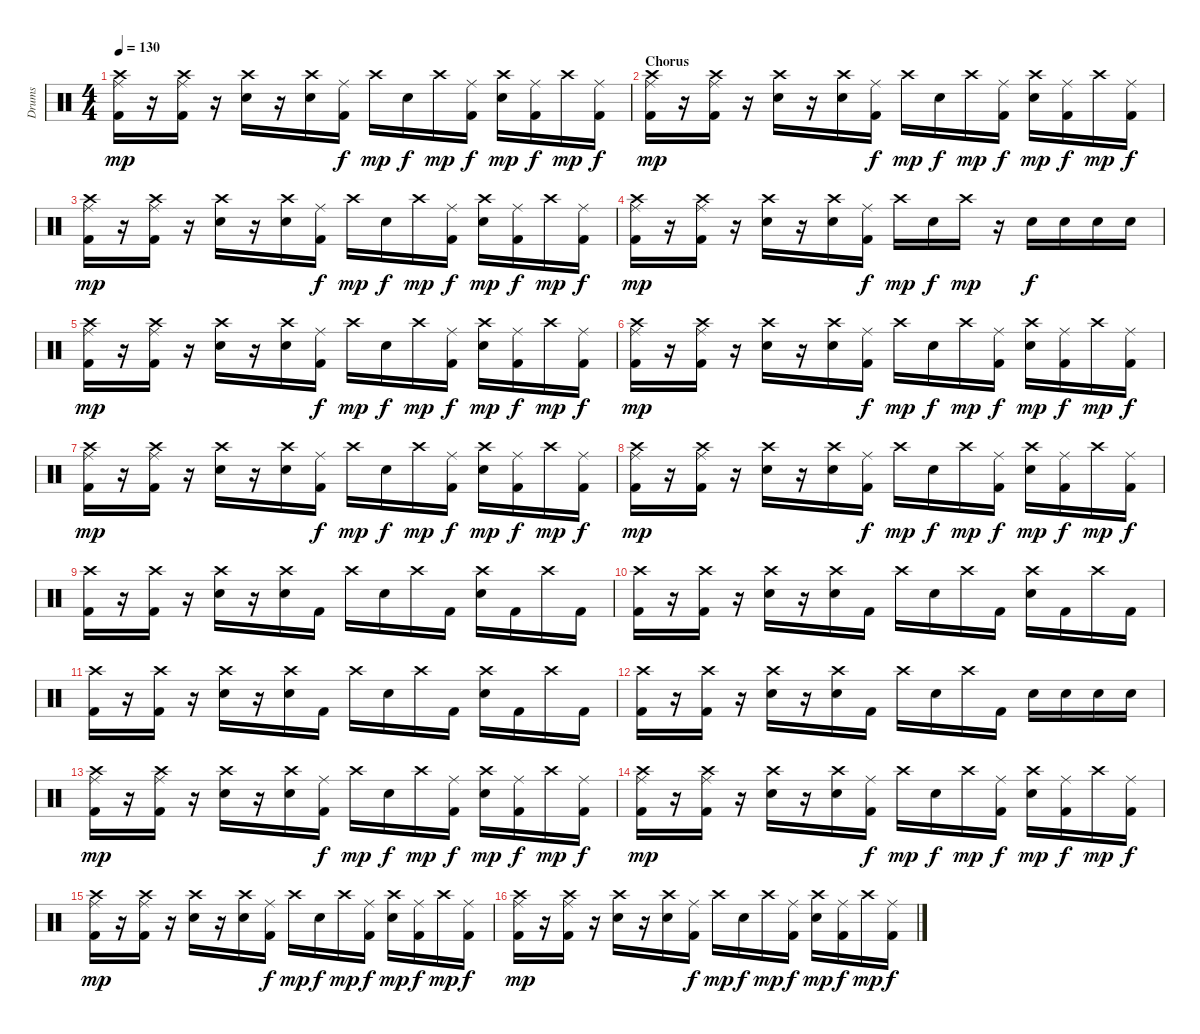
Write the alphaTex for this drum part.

\track ("Drums" "Drums") {instrument percussion}
\staff {score}
\articulation defaults
\ts (4 4)
\tempo 130
\clef neutral
\ks c
("Ride (middle)" "Crash high (hit)" "Kick (hit) 2").16{dy mp} r.16 ("Ride (middle)" "Crash high (hit)" "Kick (hit) 2").16 r.16 ("Crash high (hit)" "Snare (hit) 2").16 r.16 ("Crash high (hit)" "Snare (hit) 2").16 ("Ride (middle)" "Kick (hit) 2").16{dy f} "Crash high (hit)".16{dy mp} "Snare (hit) 2".16{dy f} "Crash high (hit)".16{dy mp} ("Ride (middle)" "Kick (hit) 2").16{dy f} ("Crash high (hit)" "Snare (hit) 2").16{dy mp} ("Ride (middle)" "Kick (hit) 2").16{dy f} "Crash high (hit)".16{dy mp} ("Ride (middle)" "Kick (hit) 2").16{dy f} |
\section ("" "Chorus")
("Ride (middle)" "Crash high (hit)" "Kick (hit) 2").16{dy mp} r.16 ("Ride (middle)" "Crash high (hit)" "Kick (hit) 2").16 r.16 ("Crash high (hit)" "Snare (hit) 2").16 r.16 ("Crash high (hit)" "Snare (hit) 2").16 ("Ride (middle)" "Kick (hit) 2").16{dy f} "Crash high (hit)".16{dy mp} "Snare (hit) 2".16{dy f} "Crash high (hit)".16{dy mp} ("Ride (middle)" "Kick (hit) 2").16{dy f} ("Crash high (hit)" "Snare (hit) 2").16{dy mp} ("Ride (middle)" "Kick (hit) 2").16{dy f} "Crash high (hit)".16{dy mp} ("Ride (middle)" "Kick (hit) 2").16{dy f} |
("Ride (middle)" "Crash high (hit)" "Kick (hit) 2").16{dy mp} r.16 ("Ride (middle)" "Crash high (hit)" "Kick (hit) 2").16 r.16 ("Crash high (hit)" "Snare (hit) 2").16 r.16 ("Crash high (hit)" "Snare (hit) 2").16 ("Ride (middle)" "Kick (hit) 2").16{dy f} "Crash high (hit)".16{dy mp} "Snare (hit) 2".16{dy f} "Crash high (hit)".16{dy mp} ("Ride (middle)" "Kick (hit) 2").16{dy f} ("Crash high (hit)" "Snare (hit) 2").16{dy mp} ("Ride (middle)" "Kick (hit) 2").16{dy f} "Crash high (hit)".16{dy mp} ("Ride (middle)" "Kick (hit) 2").16{dy f} |
("Ride (middle)" "Crash high (hit)" "Kick (hit) 2").16{dy mp} r.16 ("Ride (middle)" "Crash high (hit)" "Kick (hit) 2").16 r.16 ("Crash high (hit)" "Snare (hit) 2").16 r.16 ("Crash high (hit)" "Snare (hit) 2").16 ("Ride (middle)" "Kick (hit) 2").16{dy f} "Crash high (hit)".16{dy mp} "Snare (hit) 2".16{dy f} "Crash high (hit)".16{dy mp} r.16 "Snare (hit) 2".16{dy f} "Snare (hit) 2".16 "Snare (hit) 2".16 "Snare (hit) 2".16 |
("Ride (middle)" "Crash high (hit)" "Kick (hit) 2").16{dy mp} r.16 ("Ride (middle)" "Crash high (hit)" "Kick (hit) 2").16 r.16 ("Crash high (hit)" "Snare (hit) 2").16 r.16 ("Crash high (hit)" "Snare (hit) 2").16 ("Ride (middle)" "Kick (hit) 2").16{dy f} "Crash high (hit)".16{dy mp} "Snare (hit) 2".16{dy f} "Crash high (hit)".16{dy mp} ("Ride (middle)" "Kick (hit) 2").16{dy f} ("Crash high (hit)" "Snare (hit) 2").16{dy mp} ("Ride (middle)" "Kick (hit) 2").16{dy f} "Crash high (hit)".16{dy mp} ("Ride (middle)" "Kick (hit) 2").16{dy f} |
("Ride (middle)" "Crash high (hit)" "Kick (hit) 2").16{dy mp} r.16 ("Ride (middle)" "Crash high (hit)" "Kick (hit) 2").16 r.16 ("Crash high (hit)" "Snare (hit) 2").16 r.16 ("Crash high (hit)" "Snare (hit) 2").16 ("Ride (middle)" "Kick (hit) 2").16{dy f} "Crash high (hit)".16{dy mp} "Snare (hit) 2".16{dy f} "Crash high (hit)".16{dy mp} ("Ride (middle)" "Kick (hit) 2").16{dy f} ("Crash high (hit)" "Snare (hit) 2").16{dy mp} ("Ride (middle)" "Kick (hit) 2").16{dy f} "Crash high (hit)".16{dy mp} ("Ride (middle)" "Kick (hit) 2").16{dy f} |
("Ride (middle)" "Crash high (hit)" "Kick (hit) 2").16{dy mp} r.16 ("Ride (middle)" "Crash high (hit)" "Kick (hit) 2").16 r.16 ("Crash high (hit)" "Snare (hit) 2").16 r.16 ("Crash high (hit)" "Snare (hit) 2").16 ("Ride (middle)" "Kick (hit) 2").16{dy f} "Crash high (hit)".16{dy mp} "Snare (hit) 2".16{dy f} "Crash high (hit)".16{dy mp} ("Ride (middle)" "Kick (hit) 2").16{dy f} ("Crash high (hit)" "Snare (hit) 2").16{dy mp} ("Ride (middle)" "Kick (hit) 2").16{dy f} "Crash high (hit)".16{dy mp} ("Ride (middle)" "Kick (hit) 2").16{dy f} |
("Ride (middle)" "Crash high (hit)" "Kick (hit) 2").16{dy mp} r.16 ("Ride (middle)" "Crash high (hit)" "Kick (hit) 2").16 r.16 ("Crash high (hit)" "Snare (hit) 2").16 r.16 ("Crash high (hit)" "Snare (hit) 2").16 ("Ride (middle)" "Kick (hit) 2").16{dy f} "Crash high (hit)".16{dy mp} "Snare (hit) 2".16{dy f} "Crash high (hit)".16{dy mp} ("Ride (middle)" "Kick (hit) 2").16{dy f} ("Crash high (hit)" "Snare (hit) 2").16{dy mp} ("Ride (middle)" "Kick (hit) 2").16{dy f} "Crash high (hit)".16{dy mp} ("Ride (middle)" "Kick (hit) 2").16{dy f} |
("Crash high (hit)" "Kick (hit) 2").16 r.16 ("Crash high (hit)" "Kick (hit) 2").16 r.16 ("Crash high (hit)" "Snare (hit) 2").16 r.16 ("Crash high (hit)" "Snare (hit) 2").16 "Kick (hit) 2".16 "Crash high (hit)".16 "Snare (hit) 2".16 "Crash high (hit)".16 "Kick (hit) 2".16 ("Crash high (hit)" "Snare (hit) 2").16 "Kick (hit) 2".16 "Crash high (hit)".16 "Kick (hit) 2".16 |
("Crash high (hit)" "Kick (hit) 2").16 r.16 ("Crash high (hit)" "Kick (hit) 2").16 r.16 ("Crash high (hit)" "Snare (hit) 2").16 r.16 ("Crash high (hit)" "Snare (hit) 2").16 "Kick (hit) 2".16 "Crash high (hit)".16 "Snare (hit) 2".16 "Crash high (hit)".16 "Kick (hit) 2".16 ("Crash high (hit)" "Snare (hit) 2").16 "Kick (hit) 2".16 "Crash high (hit)".16 "Kick (hit) 2".16 |
("Crash high (hit)" "Kick (hit) 2").16 r.16 ("Crash high (hit)" "Kick (hit) 2").16 r.16 ("Crash high (hit)" "Snare (hit) 2").16 r.16 ("Crash high (hit)" "Snare (hit) 2").16 "Kick (hit) 2".16 "Crash high (hit)".16 "Snare (hit) 2".16 "Crash high (hit)".16 "Kick (hit) 2".16 ("Crash high (hit)" "Snare (hit) 2").16 "Kick (hit) 2".16 "Crash high (hit)".16 "Kick (hit) 2".16 |
("Crash high (hit)" "Kick (hit) 2").16 r.16 ("Crash high (hit)" "Kick (hit) 2").16 r.16 ("Crash high (hit)" "Snare (hit) 2").16 r.16 ("Crash high (hit)" "Snare (hit) 2").16 "Kick (hit) 2".16 "Crash high (hit)".16 "Snare (hit) 2".16 "Crash high (hit)".16 "Kick (hit) 2".16 "Snare (hit) 2".16 "Snare (hit) 2".16 "Snare (hit) 2".16 "Snare (hit) 2".16 |
("Ride (middle)" "Crash high (hit)" "Kick (hit) 2").16{dy mp} r.16 ("Ride (middle)" "Crash high (hit)" "Kick (hit) 2").16 r.16 ("Crash high (hit)" "Snare (hit) 2").16 r.16 ("Crash high (hit)" "Snare (hit) 2").16 ("Ride (middle)" "Kick (hit) 2").16{dy f} "Crash high (hit)".16{dy mp} "Snare (hit) 2".16{dy f} "Crash high (hit)".16{dy mp} ("Ride (middle)" "Kick (hit) 2").16{dy f} ("Crash high (hit)" "Snare (hit) 2").16{dy mp} ("Ride (middle)" "Kick (hit) 2").16{dy f} "Crash high (hit)".16{dy mp} ("Ride (middle)" "Kick (hit) 2").16{dy f} |
("Ride (middle)" "Crash high (hit)" "Kick (hit) 2").16{dy mp} r.16 ("Ride (middle)" "Crash high (hit)" "Kick (hit) 2").16 r.16 ("Crash high (hit)" "Snare (hit) 2").16 r.16 ("Crash high (hit)" "Snare (hit) 2").16 ("Ride (middle)" "Kick (hit) 2").16{dy f} "Crash high (hit)".16{dy mp} "Snare (hit) 2".16{dy f} "Crash high (hit)".16{dy mp} ("Ride (middle)" "Kick (hit) 2").16{dy f} ("Crash high (hit)" "Snare (hit) 2").16{dy mp} ("Ride (middle)" "Kick (hit) 2").16{dy f} "Crash high (hit)".16{dy mp} ("Ride (middle)" "Kick (hit) 2").16{dy f} |
("Ride (middle)" "Crash high (hit)" "Kick (hit) 2").16{dy mp} r.16 ("Ride (middle)" "Crash high (hit)" "Kick (hit) 2").16 r.16 ("Crash high (hit)" "Snare (hit) 2").16 r.16 ("Crash high (hit)" "Snare (hit) 2").16 ("Ride (middle)" "Kick (hit) 2").16{dy f} "Crash high (hit)".16{dy mp} "Snare (hit) 2".16{dy f} "Crash high (hit)".16{dy mp} ("Ride (middle)" "Kick (hit) 2").16{dy f} ("Crash high (hit)" "Snare (hit) 2").16{dy mp} ("Ride (middle)" "Kick (hit) 2").16{dy f} "Crash high (hit)".16{dy mp} ("Ride (middle)" "Kick (hit) 2").16{dy f} |
("Ride (middle)" "Crash high (hit)" "Kick (hit) 2").16{dy mp} r.16 ("Ride (middle)" "Crash high (hit)" "Kick (hit) 2").16 r.16 ("Crash high (hit)" "Snare (hit) 2").16 r.16 ("Crash high (hit)" "Snare (hit) 2").16 ("Ride (middle)" "Kick (hit) 2").16{dy f} "Crash high (hit)".16{dy mp} "Snare (hit) 2".16{dy f} "Crash high (hit)".16{dy mp} ("Ride (middle)" "Kick (hit) 2").16{dy f} ("Crash high (hit)" "Snare (hit) 2").16{dy mp} ("Ride (middle)" "Kick (hit) 2").16{dy f} "Crash high (hit)".16{dy mp} ("Ride (middle)" "Kick (hit) 2").16{dy f}
